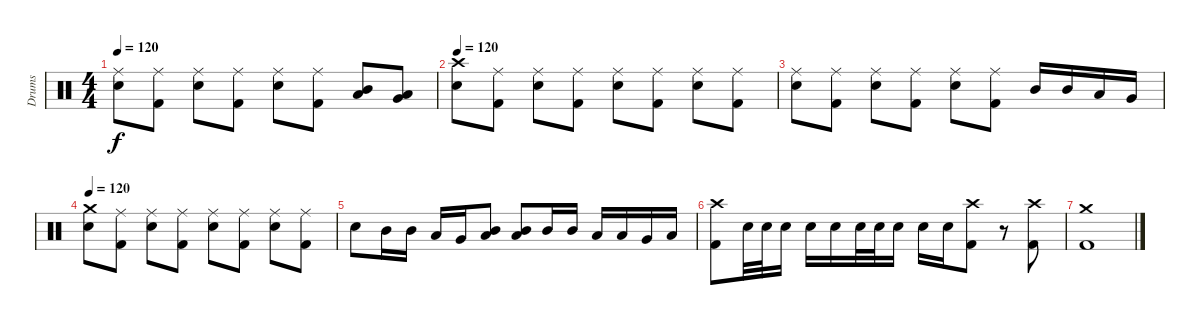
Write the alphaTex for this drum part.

\track ("Drums" "Drums") {instrument percussion}
\staff {score}
\articulation defaults
\ts (4 4)
\tempo 120
\clef neutral
\ks c
("Ride (middle)" "Electric Snare (hit)").8{dy f} ("Ride (middle)" "Kick (hit) 2").8 ("Ride (middle)" "Electric Snare (hit)").8 ("Ride (middle)" "Kick (hit) 2").8 ("Ride (middle)" "Electric Snare (hit)").8 ("Ride (middle)" "Kick (hit) 2").8 ("Mid Tom (hit)" "Low Tom (hit)").8 ("Low Tom (hit)" "Very Low Tom (hit)").8 |
\tempo 120
("Crash high (hit)" "Electric Snare (hit)").8 ("Ride (middle)" "Kick (hit) 2").8 ("Ride (middle)" "Electric Snare (hit)").8 ("Ride (middle)" "Kick (hit) 2").8 ("Ride (middle)" "Electric Snare (hit)").8 ("Ride (middle)" "Kick (hit) 2").8 ("Ride (middle)" "Electric Snare (hit)").8 ("Ride (middle)" "Kick (hit) 2").8 |
("Ride (middle)" "Electric Snare (hit)").8 ("Ride (middle)" "Kick (hit) 2").8 ("Ride (middle)" "Electric Snare (hit)").8 ("Ride (middle)" "Kick (hit) 2").8 ("Ride (middle)" "Electric Snare (hit)").8 ("Ride (middle)" "Kick (hit) 2").8 "Mid Tom (hit)".16 "Mid Tom (hit)".16 "Low Tom (hit)".16 "Very Low Tom (hit)".16 |
\tempo 120
("Crash medium (hit)" "Electric Snare (hit)").8 ("Ride (middle)" "Kick (hit) 2").8 ("Ride (middle)" "Electric Snare (hit)").8 ("Ride (middle)" "Kick (hit) 2").8 ("Ride (middle)" "Electric Snare (hit)").8 ("Ride (middle)" "Kick (hit) 2").8 ("Ride (middle)" "Electric Snare (hit)").8 ("Ride (middle)" "Kick (hit) 2").8 |
"Electric Snare (hit)".8 "Mid Tom (hit)".16 "Mid Tom (hit)".16 "Low Tom (hit)".16 "Very Low Tom (hit)".16 ("Mid Tom (hit)" "Low Tom (hit)").8 ("Mid Tom (hit)" "Low Tom (hit)").8 "Mid Tom (hit)".16 "Mid Tom (hit)".16 "Low Tom (hit)".16 "Low Tom (hit)".16 "Very Low Tom (hit)".16 "Low Floor Tom (hit)".16 |
("Crash high (hit)" "Kick (hit) 2").8 "Electric Snare (hit)".32 "Electric Snare (hit)".32 "Electric Snare (hit)".16 "Electric Snare (hit)".16 "Electric Snare (hit)".16 "Electric Snare (hit)".32 "Electric Snare (hit)".32 "Electric Snare (hit)".16 "Electric Snare (hit)".16 "Electric Snare (hit)".16 ("Crash high (hit)" "Kick (hit) 2").8 r.8 ("Crash high (hit)" "Kick (hit) 2").8 |
("Crash medium (hit)" "Kick (hit) 2").1
